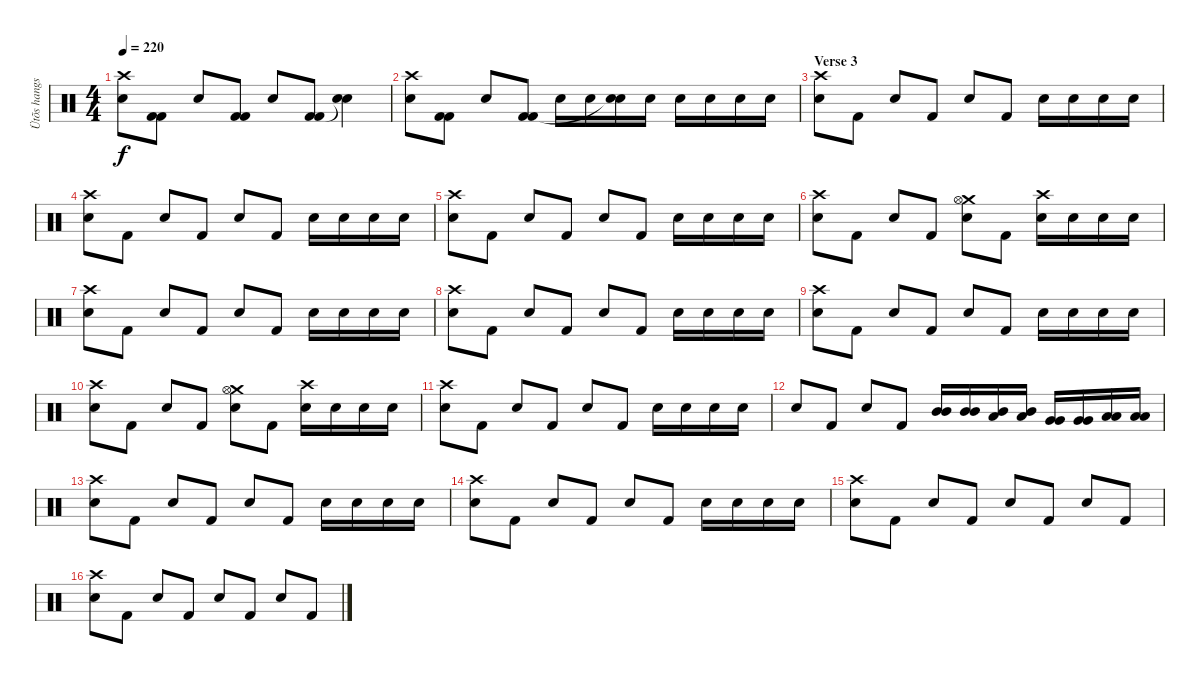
\track ("Ütõs hangszer" "Ütõs hangs") {instrument percussion}
\staff {score}
\articulation defaults
\ts (4 4)
\tempo 220
\clef neutral
\ks c
("Snare (hit) 2" "Crash high (hit)").8{dy f} ("Kick (hit) 2" "Kick (hit) 2").8 "Snare (hit) 2".8 ("Kick (hit) 2" "Kick (hit) 2").8 "Snare (hit) 2".8 ("Kick (hit) 2" "Kick (hit) 2").8 ("Snare (hit) 2" "Snare (hit)"{t}).4 |
("Snare (hit) 2" "Crash high (hit)").8 ("Kick (hit) 2" "Kick (hit) 2").8 "Snare (hit) 2".8 ("Kick (hit) 2" "Kick (hit) 2").8 "Snare (hit) 2".16 "Snare (hit) 2".16 ("Snare (hit) 2" "Snare (hit)"{t}).16 "Snare (hit) 2".16 "Snare (hit) 2".16 "Snare (hit) 2".16 "Snare (hit) 2".16 "Snare (hit) 2".16 |
\section ("" "Verse 3")
("Snare (hit) 2" "Crash high (hit)").8 "Kick (hit) 2".8 "Snare (hit) 2".8 "Kick (hit) 2".8 "Snare (hit) 2".8 "Kick (hit) 2".8 "Snare (hit) 2".16 "Snare (hit) 2".16 "Snare (hit) 2".16 "Snare (hit) 2".16 |
("Snare (hit) 2" "Crash high (hit)").8 "Kick (hit) 2".8 "Snare (hit) 2".8 "Kick (hit) 2".8 "Snare (hit) 2".8 "Kick (hit) 2".8 "Snare (hit) 2".16 "Snare (hit) 2".16 "Snare (hit) 2".16 "Snare (hit) 2".16 |
("Snare (hit) 2" "Crash high (hit)").8 "Kick (hit) 2".8 "Snare (hit) 2".8 "Kick (hit) 2".8 "Snare (hit) 2".8 "Kick (hit) 2".8 "Snare (hit) 2".16 "Snare (hit) 2".16 "Snare (hit) 2".16 "Snare (hit) 2".16 |
("Snare (hit) 2" "Crash high (hit)").8 "Kick (hit) 2".8 "Snare (hit) 2".8 "Kick (hit) 2".8 ("Crash medium (hit)" "Snare (hit) 2" "Hi-Hat (open)").8 "Kick (hit) 2".8 ("Snare (hit) 2" "Crash high (hit)").16 "Snare (hit) 2".16 "Snare (hit) 2".16 "Snare (hit) 2".16 |
("Snare (hit) 2" "Crash high (hit)").8 "Kick (hit) 2".8 "Snare (hit) 2".8 "Kick (hit) 2".8 "Snare (hit) 2".8 "Kick (hit) 2".8 "Snare (hit) 2".16 "Snare (hit) 2".16 "Snare (hit) 2".16 "Snare (hit) 2".16 |
("Snare (hit) 2" "Crash high (hit)").8 "Kick (hit) 2".8 "Snare (hit) 2".8 "Kick (hit) 2".8 "Snare (hit) 2".8 "Kick (hit) 2".8 "Snare (hit) 2".16 "Snare (hit) 2".16 "Snare (hit) 2".16 "Snare (hit) 2".16 |
("Snare (hit) 2" "Crash high (hit)").8 "Kick (hit) 2".8 "Snare (hit) 2".8 "Kick (hit) 2".8 "Snare (hit) 2".8 "Kick (hit) 2".8 "Snare (hit) 2".16 "Snare (hit) 2".16 "Snare (hit) 2".16 "Snare (hit) 2".16 |
("Snare (hit) 2" "Crash high (hit)").8 "Kick (hit) 2".8 "Snare (hit) 2".8 "Kick (hit) 2".8 ("Crash medium (hit)" "Snare (hit) 2" "Hi-Hat (open)").8 "Kick (hit) 2".8 ("Snare (hit) 2" "Crash high (hit)").16 "Snare (hit) 2".16 "Snare (hit) 2".16 "Snare (hit) 2".16 |
("Snare (hit) 2" "Crash high (hit)").8 "Kick (hit) 2".8 "Snare (hit) 2".8 "Kick (hit) 2".8 "Snare (hit) 2".8 "Kick (hit) 2".8 "Snare (hit) 2".16 "Snare (hit) 2".16 "Snare (hit) 2".16 "Snare (hit) 2".16 |
"Snare (hit) 2".8 "Kick (hit) 2".8 "Snare (hit) 2".8 "Kick (hit) 2".8 ("Mid Tom (hit)" "Mid Tom (hit)").16 ("Mid Tom (hit)" "Mid Tom (hit)").16 ("Low Tom (hit)" "Mid Tom (hit)").16 ("Low Tom (hit)" "Mid Tom (hit)").16 ("Very Low Tom (hit)" "Very Low Tom (hit)").16 ("Very Low Tom (hit)" "Very Low Tom (hit)").16 ("Low Floor Tom (hit)" "Low Floor Tom (hit)").16 ("Low Floor Tom (hit)" "Low Floor Tom (hit)").16 |
("Snare (hit) 2" "Crash high (hit)").8 "Kick (hit) 2".8 "Snare (hit) 2".8 "Kick (hit) 2".8 "Snare (hit) 2".8 "Kick (hit) 2".8 "Snare (hit) 2".16 "Snare (hit) 2".16 "Snare (hit) 2".16 "Snare (hit) 2".16 |
("Snare (hit) 2" "Crash high (hit)").8 "Kick (hit) 2".8 "Snare (hit) 2".8 "Kick (hit) 2".8 "Snare (hit) 2".8 "Kick (hit) 2".8 "Snare (hit) 2".16 "Snare (hit) 2".16 "Snare (hit) 2".16 "Snare (hit) 2".16 |
("Snare (hit) 2" "Crash high (hit)").8 "Kick (hit) 2".8 "Snare (hit) 2".8 "Kick (hit) 2".8 "Snare (hit) 2".8 "Kick (hit) 2".8 "Snare (hit) 2".8 "Kick (hit) 2".8 |
("Snare (hit) 2" "Crash high (hit)").8 "Kick (hit) 2".8 "Snare (hit) 2".8 "Kick (hit) 2".8 "Snare (hit) 2".8 "Kick (hit) 2".8 "Snare (hit) 2".8 "Kick (hit) 2".8
